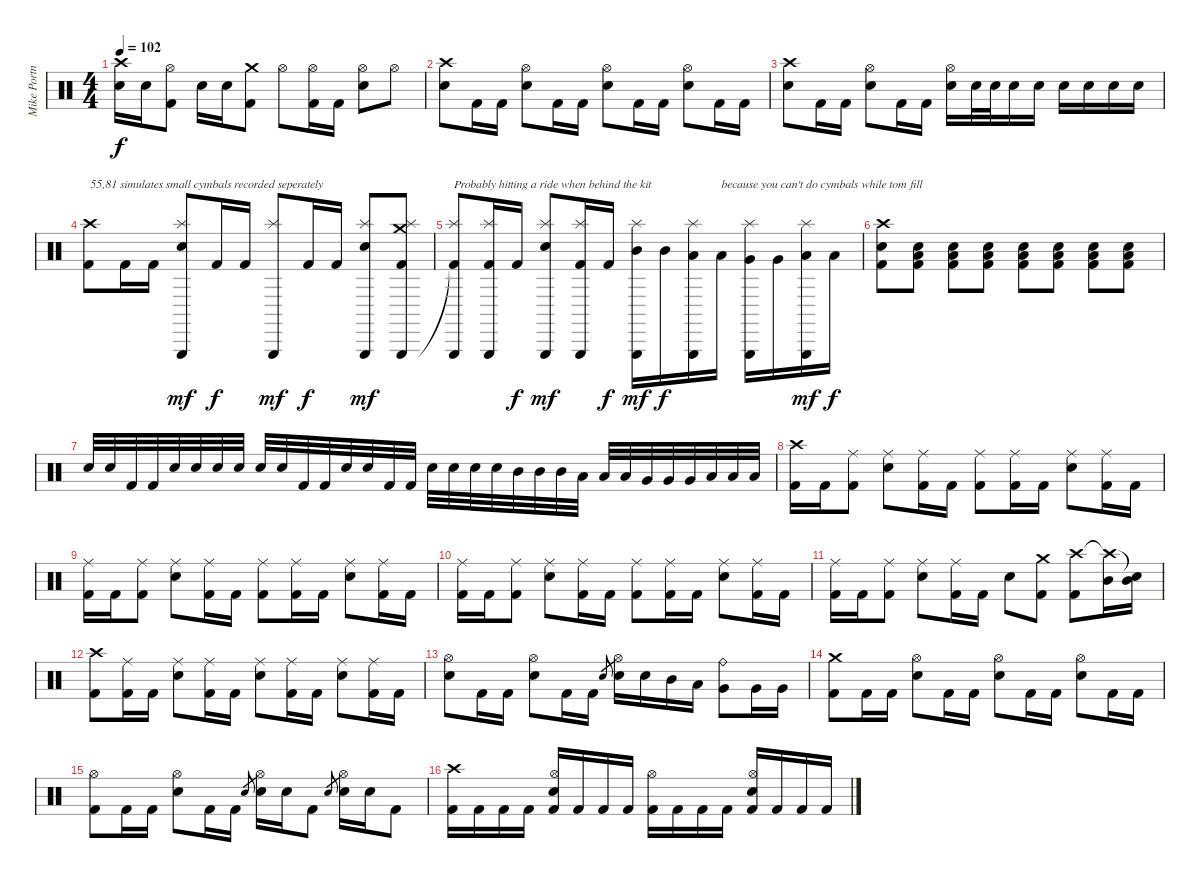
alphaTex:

\track ("Mike Portnoy Drum " "Mike Portn") {instrument percussion}
\staff {score}
\articulation defaults
\ts (4 4)
\tempo 102
\clef neutral
\ks c
("Crash high (hit)" "Electric Snare (hit)").16{dy f} "Electric Snare (hit)".16 ("Hi-Hat (open)" "Kick (hit) 2").8 "Electric Snare (hit)".16 "Electric Snare (hit)".16 ("Crash medium (hit)" "Kick (hit) 2").8 "Hi-Hat (open)".8 ("Hi-Hat (open)" "Kick (hit) 2").16 "Kick (hit) 2".16 ("Hi-Hat (open)" "Electric Snare (hit)").8 "Hi-Hat (open)".8 |
("Crash high (hit)" "Electric Snare (hit)").8 "Kick (hit) 2".16 "Kick (hit) 2".16 ("Hi-Hat (open)" "Electric Snare (hit)").8 "Kick (hit) 2".16 "Kick (hit) 2".16 ("Hi-Hat (open)" "Electric Snare (hit)").8 "Kick (hit) 2".16 "Kick (hit) 2".16 ("Hi-Hat (open)" "Electric Snare (hit)").8 "Kick (hit) 2".16 "Kick (hit) 2".16 |
("Crash high (hit)" "Electric Snare (hit)").8 "Kick (hit) 2".16 "Kick (hit) 2".16 ("Hi-Hat (open)" "Electric Snare (hit)").8 "Kick (hit) 2".16 "Kick (hit) 2".16 ("Hi-Hat (open)" "Electric Snare (hit)").16 "Electric Snare (hit)".32 "Electric Snare (hit)".32 "Electric Snare (hit)".16 "Electric Snare (hit)".16 "Electric Snare (hit)".16 "Electric Snare (hit)".16 "Electric Snare (hit)".16 "Electric Snare (hit)".16 |
("Crash high (hit)" "Kick (hit) 2").8{txt "55,81 simulates small cymbals recorded seperately"} "Kick (hit) 2".16 "Kick (hit) 2".16 ("Splash (hit)" "Triangle (hit)" "Electric Snare (hit)").8{dy mf} "Kick (hit) 2".16{dy f} "Kick (hit) 2".16 ("Splash (hit)" "Triangle (hit)").8{dy mf} "Kick (hit) 2".16{dy f} "Kick (hit) 2".16 ("Splash (hit)" "Triangle (hit)" "Electric Snare (hit)").8{dy mf} ("Crash medium (hit)" "Splash (hit)" "Triangle (hit)" "Kick (hit) 2").8 |
("Splash (hit)" "Triangle (hit)" "Kick (hit) 2"{t}).8{txt "Probably hitting a ride when behind the kit"} ("Splash (hit)" "Triangle (hit)" "Kick (hit) 2").16 "Kick (hit) 2".16{dy f} ("Splash (hit)" "Triangle (hit)" "Electric Snare (hit)").8{dy mf} ("Splash (hit)" "Triangle (hit)" "Kick (hit) 2").16 "Kick (hit) 2".16{dy f} ("Splash (hit)" "Triangle (hit)" "Mid Tom (hit)").16{dy mf} "Mid Tom (hit)".16{dy f} ("Splash (hit)" "Triangle (hit)" "Low Tom (hit)").16 "Low Tom (hit)".16{txt "because you can't do cymbals while tom fill"} ("Splash (hit)" "Triangle (hit)" "Very Low Tom (hit)").16 "Very Low Tom (hit)".16 ("Splash (hit)" "Triangle (hit)" "Low Floor Tom (hit)").16{dy mf} "Low Floor Tom (hit)".16{dy f} |
("Crash high (hit)" "Electric Snare (hit)" "Kick (hit) 2").8 ("Electric Snare (hit)" "Low Floor Tom (hit)" "Kick (hit) 2").8 ("Electric Snare (hit)" "Low Floor Tom (hit)" "Kick (hit) 2").8 ("Electric Snare (hit)" "Low Floor Tom (hit)" "Kick (hit) 2").8 ("Electric Snare (hit)" "Low Floor Tom (hit)" "Kick (hit) 2").8 ("Electric Snare (hit)" "Low Floor Tom (hit)" "Kick (hit) 2").8 ("Electric Snare (hit)" "Low Floor Tom (hit)" "Kick (hit) 2").8 ("Electric Snare (hit)" "Low Floor Tom (hit)" "Kick (hit) 2").8 |
"Electric Snare (hit)".32 "Electric Snare (hit)".32 "Kick (hit) 2".32 "Kick (hit) 2".32 "Electric Snare (hit)".32 "Electric Snare (hit)".32 "Electric Snare (hit)".32 "Electric Snare (hit)".32 "Electric Snare (hit)".32 "Electric Snare (hit)".32 "Kick (hit) 2".32 "Kick (hit) 2".32 "Electric Snare (hit)".32 "Electric Snare (hit)".32 "Kick (hit) 2".32 "Kick (hit) 2".32 "Electric Snare (hit)".32 "Electric Snare (hit)".32 "Electric Snare (hit)".32 "Electric Snare (hit)".32 "Mid Tom (hit)".32 "Mid Tom (hit)".32 "Mid Tom (hit)".32 "Low Tom (hit)".32 "Low Tom (hit)".32 "Low Tom (hit)".32 "Very Low Tom (hit)".32 "Very Low Tom (hit)".32 "Very Low Tom (hit)".32 "Low Floor Tom (hit)".32 "Low Floor Tom (hit)".32 "Low Floor Tom (hit)".32 |
("Crash high (hit)" "Kick (hit) 2").16 "Kick (hit) 2".16 ("Ride (middle)" "Kick (hit) 2").8 ("Ride (middle)" "Electric Snare (hit)").8 ("Ride (middle)" "Kick (hit) 2").16 "Kick (hit) 2".16 ("Ride (middle)" "Kick (hit) 2").8 ("Ride (middle)" "Kick (hit) 2").16 "Kick (hit) 2".16 ("Ride (middle)" "Electric Snare (hit)").8 ("Ride (middle)" "Kick (hit) 2").16 "Kick (hit) 2".16 |
("Ride (middle)" "Kick (hit) 2").16 "Kick (hit) 2".16 ("Ride (middle)" "Kick (hit) 2").8 ("Ride (middle)" "Electric Snare (hit)").8 ("Ride (middle)" "Kick (hit) 2").16 "Kick (hit) 2".16 ("Ride (middle)" "Kick (hit) 2").8 ("Ride (middle)" "Kick (hit) 2").16 "Kick (hit) 2".16 ("Ride (middle)" "Electric Snare (hit)").8 ("Ride (middle)" "Kick (hit) 2").16 "Kick (hit) 2".16 |
("Ride (middle)" "Kick (hit) 2").16 "Kick (hit) 2".16 ("Ride (middle)" "Kick (hit) 2").8 ("Ride (middle)" "Electric Snare (hit)").8 ("Ride (middle)" "Kick (hit) 2").16 "Kick (hit) 2".16 ("Ride (middle)" "Kick (hit) 2").8 ("Ride (middle)" "Kick (hit) 2").16 "Kick (hit) 2".16 ("Ride (middle)" "Electric Snare (hit)").8 ("Ride (middle)" "Kick (hit) 2").16 "Kick (hit) 2".16 |
("Ride (middle)" "Kick (hit) 2").16 "Kick (hit) 2".16 ("Ride (middle)" "Kick (hit) 2").8 ("Ride (middle)" "Electric Snare (hit)").8 ("Ride (middle)" "Kick (hit) 2").16 "Kick (hit) 2".16 "Electric Snare (hit)".8 ("Crash medium (hit)" "Kick (hit) 2").8 ("Crash high (hit)" "Kick (hit) 2").8 ("Crash high (hit)"{t} "Mid Tom (hit)").16 ("Snare (hit)"{t} "Mid Tom (hit)").16 |
("Crash high (hit)" "Kick (hit) 2").8 ("Ride (middle)" "Kick (hit) 2").16 "Kick (hit) 2".16 ("Ride (middle)" "Electric Snare (hit)").8 ("Ride (middle)" "Kick (hit) 2").16 "Kick (hit) 2".16 ("Ride (middle)" "Electric Snare (hit)").8 ("Ride (middle)" "Kick (hit) 2").16 "Kick (hit) 2".16 ("Ride (middle)" "Electric Snare (hit)").8 ("Ride (middle)" "Kick (hit) 2").16 "Kick (hit) 2".16 |
("Hi-Hat (open)" "Electric Snare (hit)").8 "Kick (hit) 2".16 "Kick (hit) 2".16 ("Hi-Hat (open)" "Electric Snare (hit)").8 "Kick (hit) 2".16 "Kick (hit) 2".16 "Electric Snare (hit)".8{gr} ("Hi-Hat (open)" "Electric Snare (hit)").16 "Electric Snare (hit)".16 "Mid Tom (hit)".16 "Low Tom (hit)".16 ("Ride (bell)" "Very Low Tom (hit)").8 "Very Low Tom (hit)".16 "Very Low Tom (hit)".16 |
("Crash medium (hit)" "Kick (hit) 2").8 "Kick (hit) 2".16 "Kick (hit) 2".16 ("Hi-Hat (open)" "Electric Snare (hit)").8 "Kick (hit) 2".16 "Kick (hit) 2".16 ("Hi-Hat (open)" "Electric Snare (hit)").8 "Kick (hit) 2".16 "Kick (hit) 2".16 ("Hi-Hat (open)" "Electric Snare (hit)").8 "Kick (hit) 2".16 "Kick (hit) 2".16 |
("Hi-Hat (open)" "Kick (hit) 2").8 "Kick (hit) 2".16 "Kick (hit) 2".16 ("Hi-Hat (open)" "Electric Snare (hit)").8 "Kick (hit) 2".16 "Kick (hit) 2".16 "Electric Snare (hit)".8{gr} ("Hi-Hat (open)" "Electric Snare (hit)").16 "Electric Snare (hit)".16 "Kick (hit) 2".8 "Electric Snare (hit)".8{gr} ("Hi-Hat (open)" "Electric Snare (hit)").16 "Electric Snare (hit)".16 "Kick (hit) 2".8 |
("Crash high (hit)" "Kick (hit) 2").16 "Kick (hit) 2".16 "Kick (hit) 2".16 "Kick (hit) 2".16 ("Hi-Hat (open)" "Electric Snare (hit)" "Kick (hit) 2").16 "Kick (hit) 2".16 "Kick (hit) 2".16 "Kick (hit) 2".16 ("Hi-Hat (open)" "Kick (hit) 2").16 "Kick (hit) 2".16 "Kick (hit) 2".16 "Kick (hit) 2".16 ("Hi-Hat (open)" "Electric Snare (hit)" "Kick (hit) 2").16 "Kick (hit) 2".16 "Kick (hit) 2".16 "Kick (hit) 2".16
